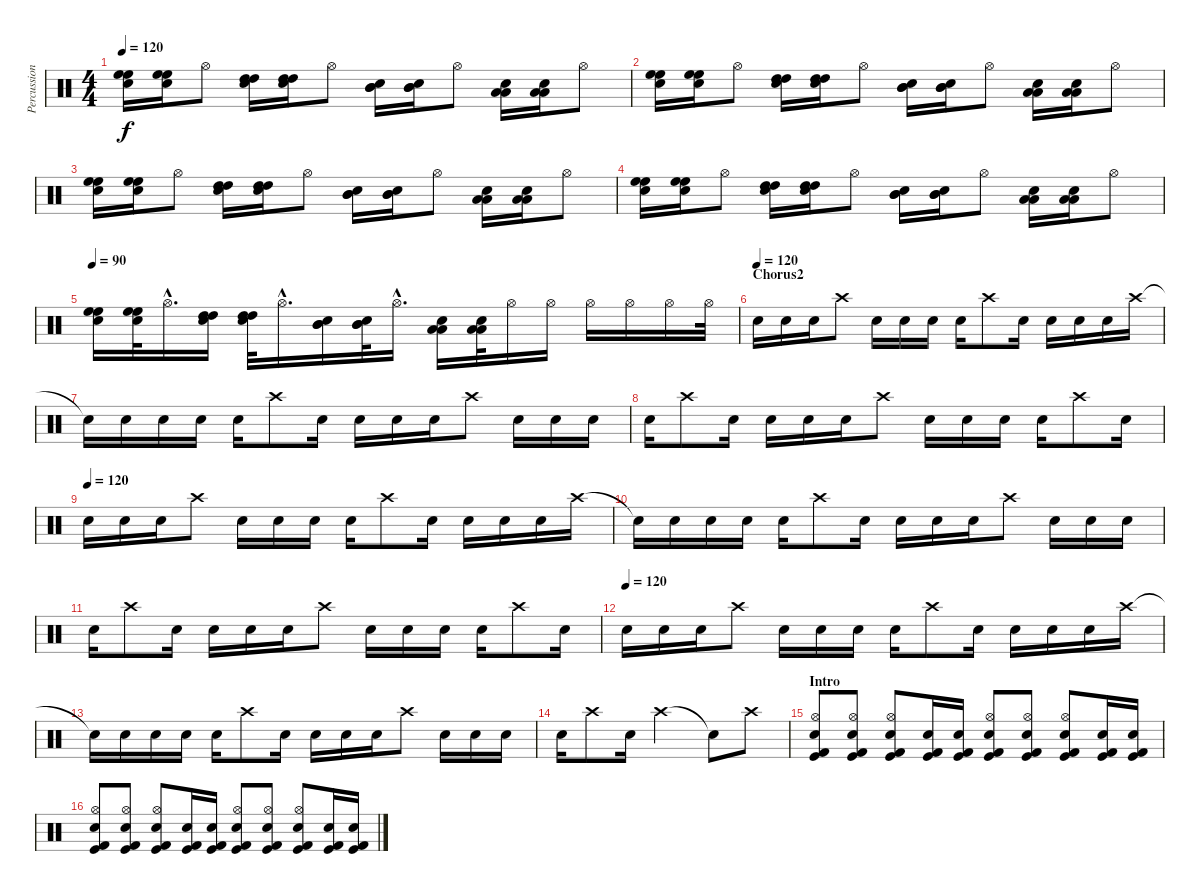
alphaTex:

\track ("Percussion" "Percussion") {instrument percussion}
\staff {score}
\articulation defaults
\ts (4 4)
\tempo 120
\clef neutral
\ks c
("Snare (hit) 2" "High Floor Tom (hit)" "High Floor Tom (hit)").16{dy f} ("Snare (hit) 2" "High Floor Tom (hit)" "High Floor Tom (hit)").16 "Hi-Hat (open)".8 ("Snare (hit) 2" "High Tom (hit)" "High Tom (hit)").16 ("Snare (hit) 2" "High Tom (hit)" "High Tom (hit)").16 "Hi-Hat (open)".8 ("Snare (hit) 2" "Mid Tom (hit)" "Mid Tom (hit)").16 ("Snare (hit) 2" "Mid Tom (hit)" "Mid Tom (hit)").16 "Hi-Hat (open)".8 ("Snare (hit) 2" "Low Tom (hit)" "Low Tom (hit)").16 ("Snare (hit) 2" "Low Tom (hit)" "Low Tom (hit)").16 "Hi-Hat (open)".8 |
("Snare (hit) 2" "High Floor Tom (hit)" "High Floor Tom (hit)").16 ("Snare (hit) 2" "High Floor Tom (hit)" "High Floor Tom (hit)").16 "Hi-Hat (open)".8 ("Snare (hit) 2" "High Tom (hit)" "High Tom (hit)").16 ("Snare (hit) 2" "High Tom (hit)" "High Tom (hit)").16 "Hi-Hat (open)".8 ("Snare (hit) 2" "Mid Tom (hit)" "Mid Tom (hit)").16 ("Snare (hit) 2" "Mid Tom (hit)" "Mid Tom (hit)").16 "Hi-Hat (open)".8 ("Snare (hit) 2" "Low Tom (hit)" "Low Tom (hit)").16 ("Snare (hit) 2" "Low Tom (hit)" "Low Tom (hit)").16 "Hi-Hat (open)".8 |
("Snare (hit) 2" "High Floor Tom (hit)" "High Floor Tom (hit)").16 ("Snare (hit) 2" "High Floor Tom (hit)" "High Floor Tom (hit)").16 "Hi-Hat (open)".8 ("Snare (hit) 2" "High Tom (hit)" "High Tom (hit)").16 ("Snare (hit) 2" "High Tom (hit)" "High Tom (hit)").16 "Hi-Hat (open)".8 ("Snare (hit) 2" "Mid Tom (hit)" "Mid Tom (hit)").16 ("Snare (hit) 2" "Mid Tom (hit)" "Mid Tom (hit)").16 "Hi-Hat (open)".8 ("Snare (hit) 2" "Low Tom (hit)" "Low Tom (hit)").16 ("Snare (hit) 2" "Low Tom (hit)" "Low Tom (hit)").16 "Hi-Hat (open)".8 |
("Snare (hit) 2" "High Floor Tom (hit)" "High Floor Tom (hit)").16 ("Snare (hit) 2" "High Floor Tom (hit)" "High Floor Tom (hit)").16 "Hi-Hat (open)".8 ("Snare (hit) 2" "High Tom (hit)" "High Tom (hit)").16 ("Snare (hit) 2" "High Tom (hit)" "High Tom (hit)").16 "Hi-Hat (open)".8 ("Snare (hit) 2" "Mid Tom (hit)" "Mid Tom (hit)").16 ("Snare (hit) 2" "Mid Tom (hit)" "Mid Tom (hit)").16 "Hi-Hat (open)".8 ("Snare (hit) 2" "Low Tom (hit)" "Low Tom (hit)").16 ("Snare (hit) 2" "Low Tom (hit)" "Low Tom (hit)").16 "Hi-Hat (open)".8 |
\tempo 90
("Snare (hit) 2" "High Floor Tom (hit)" "High Floor Tom (hit)").16 ("Snare (hit) 2" "High Floor Tom (hit)" "High Floor Tom (hit)").32 "Hi-Hat (open)"{hac}.16{d} ("Snare (hit) 2" "High Tom (hit)" "High Tom (hit)").16 ("Snare (hit) 2" "High Tom (hit)" "High Tom (hit)").32 "Hi-Hat (open)"{hac}.16{d} ("Snare (hit) 2" "Mid Tom (hit)" "Mid Tom (hit)").16 ("Snare (hit) 2" "Mid Tom (hit)" "Mid Tom (hit)").32 "Hi-Hat (open)"{hac}.16{d} ("Snare (hit) 2" "Low Tom (hit)" "Low Tom (hit)").16 ("Snare (hit) 2" "Low Tom (hit)" "Low Tom (hit)").32 "Hi-Hat (open)".16 "Hi-Hat (open)".16 "Hi-Hat (open)".16 "Hi-Hat (open)".16 "Hi-Hat (open)".16 "Hi-Hat (open)".32 |
\section ("" "Chorus2")
\tempo (120)
"Electric Snare (hit)".16 "Electric Snare (hit)".16 "Electric Snare (hit)".16 "Crash high (hit)".8 "Electric Snare (hit)".16 "Electric Snare (hit)".16 "Electric Snare (hit)".16 "Electric Snare (hit)".16 "Crash high (hit)".8 "Electric Snare (hit)".16 "Electric Snare (hit)".16 "Electric Snare (hit)".16 "Electric Snare (hit)".16 "Crash high (hit)".16 |
"Snare (hit)"{t}.16 "Electric Snare (hit)".16 "Electric Snare (hit)".16 "Electric Snare (hit)".16 "Electric Snare (hit)".16 "Crash high (hit)".8 "Electric Snare (hit)".16 "Electric Snare (hit)".16 "Electric Snare (hit)".16 "Electric Snare (hit)".16 "Crash high (hit)".8 "Electric Snare (hit)".16 "Electric Snare (hit)".16 "Electric Snare (hit)".16 |
"Electric Snare (hit)".16 "Crash high (hit)".8 "Electric Snare (hit)".16 "Electric Snare (hit)".16 "Electric Snare (hit)".16 "Electric Snare (hit)".16 "Crash high (hit)".8 "Electric Snare (hit)".16 "Electric Snare (hit)".16 "Electric Snare (hit)".16 "Electric Snare (hit)".16 "Crash high (hit)".8 "Electric Snare (hit)".16 |
\tempo (120)
"Electric Snare (hit)".16 "Electric Snare (hit)".16 "Electric Snare (hit)".16 "Crash high (hit)".8 "Electric Snare (hit)".16 "Electric Snare (hit)".16 "Electric Snare (hit)".16 "Electric Snare (hit)".16 "Crash high (hit)".8 "Electric Snare (hit)".16 "Electric Snare (hit)".16 "Electric Snare (hit)".16 "Electric Snare (hit)".16 "Crash high (hit)".16 |
"Snare (hit)"{t}.16 "Electric Snare (hit)".16 "Electric Snare (hit)".16 "Electric Snare (hit)".16 "Electric Snare (hit)".16 "Crash high (hit)".8 "Electric Snare (hit)".16 "Electric Snare (hit)".16 "Electric Snare (hit)".16 "Electric Snare (hit)".16 "Crash high (hit)".8 "Electric Snare (hit)".16 "Electric Snare (hit)".16 "Electric Snare (hit)".16 |
"Electric Snare (hit)".16 "Crash high (hit)".8 "Electric Snare (hit)".16 "Electric Snare (hit)".16 "Electric Snare (hit)".16 "Electric Snare (hit)".16 "Crash high (hit)".8 "Electric Snare (hit)".16 "Electric Snare (hit)".16 "Electric Snare (hit)".16 "Electric Snare (hit)".16 "Crash high (hit)".8 "Electric Snare (hit)".16 |
\tempo (120)
"Electric Snare (hit)".16 "Electric Snare (hit)".16 "Electric Snare (hit)".16 "Crash high (hit)".8 "Electric Snare (hit)".16 "Electric Snare (hit)".16 "Electric Snare (hit)".16 "Electric Snare (hit)".16 "Crash high (hit)".8 "Electric Snare (hit)".16 "Electric Snare (hit)".16 "Electric Snare (hit)".16 "Electric Snare (hit)".16 "Crash high (hit)".16 |
"Snare (hit)"{t}.16 "Electric Snare (hit)".16 "Electric Snare (hit)".16 "Electric Snare (hit)".16 "Electric Snare (hit)".16 "Crash high (hit)".8 "Electric Snare (hit)".16 "Electric Snare (hit)".16 "Electric Snare (hit)".16 "Electric Snare (hit)".16 "Crash high (hit)".8 "Electric Snare (hit)".16 "Electric Snare (hit)".16 "Electric Snare (hit)".16 |
"Electric Snare (hit)".16 "Crash high (hit)".8 "Electric Snare (hit)".16 "Crash high (hit)".2 "Snare (hit)"{t}.8 "Crash high (hit)".8 |
\section ("" "Intro")
("Snare (hit) 2" "Hi-Hat (open)" "Kick (hit) 2" "Kick (hit)").8 ("Snare (hit) 2" "Hi-Hat (open)" "Kick (hit) 2" "Kick (hit)").8 ("Snare (hit) 2" "Hi-Hat (open)" "Kick (hit) 2" "Kick (hit)").8 ("Kick (hit) 2" "Kick (hit)" "Electric Snare (hit)").16 ("Kick (hit) 2" "Kick (hit)" "Electric Snare (hit)").16 ("Snare (hit) 2" "Hi-Hat (open)" "Kick (hit) 2" "Kick (hit)").8 ("Snare (hit) 2" "Hi-Hat (open)" "Kick (hit) 2" "Kick (hit)").8 ("Snare (hit) 2" "Hi-Hat (open)" "Kick (hit) 2" "Kick (hit)").8 ("Kick (hit) 2" "Kick (hit)" "Electric Snare (hit)").16 ("Kick (hit) 2" "Kick (hit)" "Electric Snare (hit)").16 |
("Snare (hit) 2" "Hi-Hat (open)" "Kick (hit) 2" "Kick (hit)").8 ("Snare (hit) 2" "Hi-Hat (open)" "Kick (hit) 2" "Kick (hit)").8 ("Snare (hit) 2" "Hi-Hat (open)" "Kick (hit) 2" "Kick (hit)").8 ("Kick (hit) 2" "Kick (hit)" "Electric Snare (hit)").16 ("Kick (hit) 2" "Kick (hit)" "Electric Snare (hit)").16 ("Snare (hit) 2" "Hi-Hat (open)" "Kick (hit) 2" "Kick (hit)").8 ("Snare (hit) 2" "Hi-Hat (open)" "Kick (hit) 2" "Kick (hit)").8 ("Snare (hit) 2" "Hi-Hat (open)" "Kick (hit) 2" "Kick (hit)").8 ("Kick (hit) 2" "Kick (hit)" "Electric Snare (hit)").16 ("Kick (hit) 2" "Kick (hit)" "Electric Snare (hit)").16
